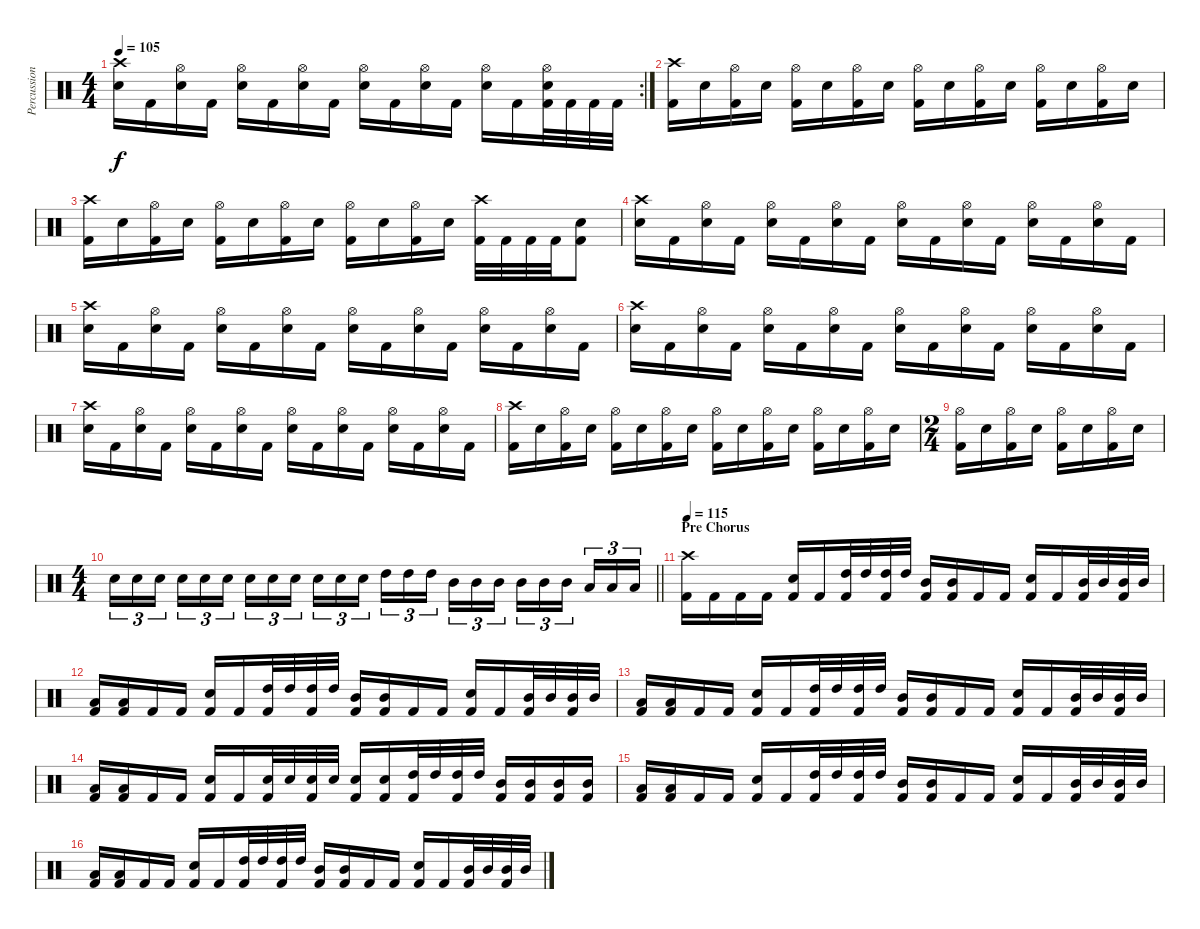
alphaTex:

\track ("Percussion" "Percussion") {mute instrument percussion}
\staff {score}
\articulation defaults
\rc 2
\ts (4 4)
\tempo 105
\clef neutral
\ks c
("Crash high (hit)" "Electric Snare (hit)").16{dy f} "Kick (hit) 2".16 ("Hi-Hat (open)" "Electric Snare (hit)").16 "Kick (hit) 2".16 ("Hi-Hat (open)" "Electric Snare (hit)").16 "Kick (hit) 2".16 ("Hi-Hat (open)" "Electric Snare (hit)").16 "Kick (hit) 2".16 ("Hi-Hat (open)" "Electric Snare (hit)").16 "Kick (hit) 2".16 ("Hi-Hat (open)" "Electric Snare (hit)").16 "Kick (hit) 2".16 ("Hi-Hat (open)" "Electric Snare (hit)").16 "Kick (hit) 2".16 ("Hi-Hat (open)" "Electric Snare (hit)" "Kick (hit) 2").32 "Kick (hit) 2".32 "Kick (hit) 2".32 "Kick (hit) 2".32 |
("Crash high (hit)" "Kick (hit) 2").16 "Electric Snare (hit)".16 ("Hi-Hat (open)" "Kick (hit) 2").16 "Electric Snare (hit)".16 ("Hi-Hat (open)" "Kick (hit) 2").16 "Electric Snare (hit)".16 ("Hi-Hat (open)" "Kick (hit) 2").16 "Electric Snare (hit)".16 ("Hi-Hat (open)" "Kick (hit) 2").16 "Electric Snare (hit)".16 ("Hi-Hat (open)" "Kick (hit) 2").16 "Electric Snare (hit)".16 ("Hi-Hat (open)" "Kick (hit) 2").16 "Electric Snare (hit)".16 ("Hi-Hat (open)" "Kick (hit) 2").16 "Electric Snare (hit)".16 |
("Crash high (hit)" "Kick (hit) 2").16 "Electric Snare (hit)".16 ("Hi-Hat (open)" "Kick (hit) 2").16 "Electric Snare (hit)".16 ("Hi-Hat (open)" "Kick (hit) 2").16 "Electric Snare (hit)".16 ("Hi-Hat (open)" "Kick (hit) 2").16 "Electric Snare (hit)".16 ("Hi-Hat (open)" "Kick (hit) 2").16 "Electric Snare (hit)".16 ("Hi-Hat (open)" "Kick (hit) 2").16 "Electric Snare (hit)".16 ("Crash high (hit)" "Kick (hit) 2").32 "Kick (hit) 2".32 "Kick (hit) 2".32 "Kick (hit) 2".32 ("Electric Snare (hit)" "Kick (hit) 2").8 |
("Crash high (hit)" "Electric Snare (hit)").16 "Kick (hit) 2".16 ("Hi-Hat (open)" "Electric Snare (hit)").16 "Kick (hit) 2".16 ("Hi-Hat (open)" "Electric Snare (hit)").16 "Kick (hit) 2".16 ("Hi-Hat (open)" "Electric Snare (hit)").16 "Kick (hit) 2".16 ("Hi-Hat (open)" "Electric Snare (hit)").16 "Kick (hit) 2".16 ("Hi-Hat (open)" "Electric Snare (hit)").16 "Kick (hit) 2".16 ("Hi-Hat (open)" "Electric Snare (hit)").16 "Kick (hit) 2".16 ("Hi-Hat (open)" "Electric Snare (hit)").16 "Kick (hit) 2".16 |
("Crash high (hit)" "Electric Snare (hit)").16 "Kick (hit) 2".16 ("Hi-Hat (open)" "Electric Snare (hit)").16 "Kick (hit) 2".16 ("Hi-Hat (open)" "Electric Snare (hit)").16 "Kick (hit) 2".16 ("Hi-Hat (open)" "Electric Snare (hit)").16 "Kick (hit) 2".16 ("Hi-Hat (open)" "Electric Snare (hit)").16 "Kick (hit) 2".16 ("Hi-Hat (open)" "Electric Snare (hit)").16 "Kick (hit) 2".16 ("Hi-Hat (open)" "Electric Snare (hit)").16 "Kick (hit) 2".16 ("Hi-Hat (open)" "Electric Snare (hit)").16 "Kick (hit) 2".16 |
("Crash high (hit)" "Electric Snare (hit)").16 "Kick (hit) 2".16 ("Hi-Hat (open)" "Electric Snare (hit)").16 "Kick (hit) 2".16 ("Hi-Hat (open)" "Electric Snare (hit)").16 "Kick (hit) 2".16 ("Hi-Hat (open)" "Electric Snare (hit)").16 "Kick (hit) 2".16 ("Hi-Hat (open)" "Electric Snare (hit)").16 "Kick (hit) 2".16 ("Hi-Hat (open)" "Electric Snare (hit)").16 "Kick (hit) 2".16 ("Hi-Hat (open)" "Electric Snare (hit)").16 "Kick (hit) 2".16 ("Hi-Hat (open)" "Electric Snare (hit)").16 "Kick (hit) 2".16 |
("Crash high (hit)" "Electric Snare (hit)").16 "Kick (hit) 2".16 ("Hi-Hat (open)" "Electric Snare (hit)").16 "Kick (hit) 2".16 ("Hi-Hat (open)" "Electric Snare (hit)").16 "Kick (hit) 2".16 ("Hi-Hat (open)" "Electric Snare (hit)").16 "Kick (hit) 2".16 ("Hi-Hat (open)" "Electric Snare (hit)").16 "Kick (hit) 2".16 ("Hi-Hat (open)" "Electric Snare (hit)").16 "Kick (hit) 2".16 ("Hi-Hat (open)" "Electric Snare (hit)").16 "Kick (hit) 2".16 ("Hi-Hat (open)" "Electric Snare (hit)").16 "Kick (hit) 2".16 |
("Crash high (hit)" "Kick (hit) 2").16 "Electric Snare (hit)".16 ("Hi-Hat (open)" "Kick (hit) 2").16 "Electric Snare (hit)".16 ("Hi-Hat (open)" "Kick (hit) 2").16 "Electric Snare (hit)".16 ("Hi-Hat (open)" "Kick (hit) 2").16 "Electric Snare (hit)".16 ("Hi-Hat (open)" "Kick (hit) 2").16 "Electric Snare (hit)".16 ("Hi-Hat (open)" "Kick (hit) 2").16 "Electric Snare (hit)".16 ("Hi-Hat (open)" "Kick (hit) 2").16 "Electric Snare (hit)".16 ("Hi-Hat (open)" "Kick (hit) 2").16 "Electric Snare (hit)".16 |
\ts (2 4)
("Hi-Hat (open)" "Kick (hit) 2").16 "Electric Snare (hit)".16 ("Hi-Hat (open)" "Kick (hit) 2").16 "Electric Snare (hit)".16 ("Hi-Hat (open)" "Kick (hit) 2").16 "Electric Snare (hit)".16 ("Hi-Hat (open)" "Kick (hit) 2").16 "Electric Snare (hit)".16 |
\ts (4 4)
\barLineRight lightlight "Electric Snare (hit)".16{tu (3 2)} "Electric Snare (hit)".16{tu (3 2)} "Electric Snare (hit)".16{tu (3 2) beam splitsecondary} "Electric Snare (hit)".16{tu (3 2)} "Electric Snare (hit)".16{tu (3 2)} "Electric Snare (hit)".16{tu (3 2)} "Electric Snare (hit)".16{tu (3 2)} "Electric Snare (hit)".16{tu (3 2)} "Electric Snare (hit)".16{tu (3 2) beam splitsecondary} "Electric Snare (hit)".16{tu (3 2)} "Electric Snare (hit)".16{tu (3 2)} "Electric Snare (hit)".16{tu (3 2)} "High Tom (hit)".16{tu (3 2)} "High Tom (hit)".16{tu (3 2)} "High Tom (hit)".16{tu (3 2) beam splitsecondary} "Mid Tom (hit)".16{tu (3 2)} "Mid Tom (hit)".16{tu (3 2)} "Mid Tom (hit)".16{tu (3 2)} "Mid Tom (hit)".16{tu (3 2)} "Mid Tom (hit)".16{tu (3 2)} "Mid Tom (hit)".16{tu (3 2) beam splitsecondary} "Low Tom (hit)".16{tu (3 2)} "Low Tom (hit)".16{tu (3 2)} "Low Tom (hit)".16{tu (3 2)}
|
\section ("" "Pre Chorus")
\tempo 115
("Crash high (hit)" "Kick (hit) 2").16 "Kick (hit) 2".16 "Kick (hit) 2".16 "Kick (hit) 2".16 ("Electric Snare (hit)" "Kick (hit) 2").16 "Kick (hit) 2".16 ("High Tom (hit)" "Kick (hit) 2").32 "High Tom (hit)".32 ("High Tom (hit)" "Kick (hit) 2").32 "High Tom (hit)".32 ("Mid Tom (hit)" "Kick (hit) 2").16 ("Mid Tom (hit)" "Kick (hit) 2").16 "Kick (hit) 2".16 "Kick (hit) 2".16 ("Electric Snare (hit)" "Kick (hit) 2").16 "Kick (hit) 2".16 ("Mid Tom (hit)" "Kick (hit) 2").32 "Mid Tom (hit)".32 ("Mid Tom (hit)" "Kick (hit) 2").32 "Mid Tom (hit)".32 |
("Low Tom (hit)" "Kick (hit) 2").16 ("Low Tom (hit)" "Kick (hit) 2").16 "Kick (hit) 2".16 "Kick (hit) 2".16 ("Electric Snare (hit)" "Kick (hit) 2").16 "Kick (hit) 2".16 ("High Tom (hit)" "Kick (hit) 2").32 "High Tom (hit)".32 ("High Tom (hit)" "Kick (hit) 2").32 "High Tom (hit)".32 ("Mid Tom (hit)" "Kick (hit) 2").16 ("Mid Tom (hit)" "Kick (hit) 2").16 "Kick (hit) 2".16 "Kick (hit) 2".16 ("Electric Snare (hit)" "Kick (hit) 2").16 "Kick (hit) 2".16 ("Mid Tom (hit)" "Kick (hit) 2").32 "Mid Tom (hit)".32 ("Mid Tom (hit)" "Kick (hit) 2").32 "Mid Tom (hit)".32 |
("Low Tom (hit)" "Kick (hit) 2").16 ("Low Tom (hit)" "Kick (hit) 2").16 "Kick (hit) 2".16 "Kick (hit) 2".16 ("Electric Snare (hit)" "Kick (hit) 2").16 "Kick (hit) 2".16 ("High Tom (hit)" "Kick (hit) 2").32 "High Tom (hit)".32 ("High Tom (hit)" "Kick (hit) 2").32 "High Tom (hit)".32 ("Mid Tom (hit)" "Kick (hit) 2").16 ("Mid Tom (hit)" "Kick (hit) 2").16 "Kick (hit) 2".16 "Kick (hit) 2".16 ("Electric Snare (hit)" "Kick (hit) 2").16 "Kick (hit) 2".16 ("Mid Tom (hit)" "Kick (hit) 2").32 "Mid Tom (hit)".32 ("Mid Tom (hit)" "Kick (hit) 2").32 "Mid Tom (hit)".32 |
("Low Tom (hit)" "Kick (hit) 2").16 ("Low Tom (hit)" "Kick (hit) 2").16 "Kick (hit) 2".16 "Kick (hit) 2".16 ("Electric Snare (hit)" "Kick (hit) 2").16 "Kick (hit) 2".16 ("Electric Snare (hit)" "Kick (hit) 2").32 "Electric Snare (hit)".32 ("Electric Snare (hit)" "Kick (hit) 2").32 "Electric Snare (hit)".32 ("Electric Snare (hit)" "Kick (hit) 2").16 ("Electric Snare (hit)" "Kick (hit) 2").16 ("High Tom (hit)" "Kick (hit) 2").32 "High Tom (hit)".32 ("High Tom (hit)" "Kick (hit) 2").32 "High Tom (hit)".32 ("Mid Tom (hit)" "Kick (hit) 2").16 ("Mid Tom (hit)" "Kick (hit) 2").16 ("Mid Tom (hit)" "Kick (hit) 2").16 ("Mid Tom (hit)" "Kick (hit) 2").16 |
("Low Tom (hit)" "Kick (hit) 2").16 ("Low Tom (hit)" "Kick (hit) 2").16 "Kick (hit) 2".16 "Kick (hit) 2".16 ("Electric Snare (hit)" "Kick (hit) 2").16 "Kick (hit) 2".16 ("High Tom (hit)" "Kick (hit) 2").32 "High Tom (hit)".32 ("High Tom (hit)" "Kick (hit) 2").32 "High Tom (hit)".32 ("Mid Tom (hit)" "Kick (hit) 2").16 ("Mid Tom (hit)" "Kick (hit) 2").16 "Kick (hit) 2".16 "Kick (hit) 2".16 ("Electric Snare (hit)" "Kick (hit) 2").16 "Kick (hit) 2".16 ("Mid Tom (hit)" "Kick (hit) 2").32 "Mid Tom (hit)".32 ("Mid Tom (hit)" "Kick (hit) 2").32 "Mid Tom (hit)".32 |
("Low Tom (hit)" "Kick (hit) 2").16 ("Low Tom (hit)" "Kick (hit) 2").16 "Kick (hit) 2".16 "Kick (hit) 2".16 ("Electric Snare (hit)" "Kick (hit) 2").16 "Kick (hit) 2".16 ("High Tom (hit)" "Kick (hit) 2").32 "High Tom (hit)".32 ("High Tom (hit)" "Kick (hit) 2").32 "High Tom (hit)".32 ("Mid Tom (hit)" "Kick (hit) 2").16 ("Mid Tom (hit)" "Kick (hit) 2").16 "Kick (hit) 2".16 "Kick (hit) 2".16 ("Electric Snare (hit)" "Kick (hit) 2").16 "Kick (hit) 2".16 ("Mid Tom (hit)" "Kick (hit) 2").32 "Mid Tom (hit)".32 ("Mid Tom (hit)" "Kick (hit) 2").32 "Mid Tom (hit)".32
